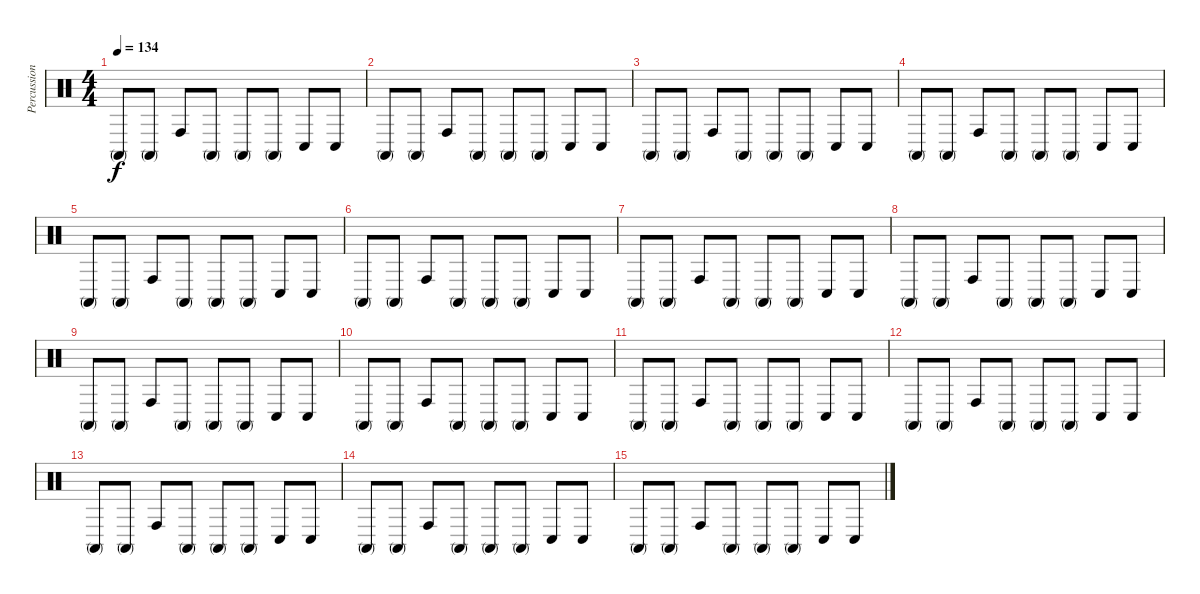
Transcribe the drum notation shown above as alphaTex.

\track ("Percussion" "Percussion") {instrument percussion}
\staff {score}
\articulation defaults
\ts (4 4)
\tempo 134
\clef neutral
\ks c "Conga high (mute)".8{dy f} "Conga high (mute)".8 "Conga high (hit)".8 "Conga high (mute)".8 "Conga high (mute)".8 "Conga high (mute)".8 "Conga low (hit)".8 "Conga low (hit)".8
|
"Conga high (mute)".8 "Conga high (mute)".8 "Conga high (hit)".8 "Conga high (mute)".8 "Conga high (mute)".8 "Conga high (mute)".8 "Conga low (hit)".8 "Conga low (hit)".8 |
"Conga high (mute)".8 "Conga high (mute)".8 "Conga high (hit)".8 "Conga high (mute)".8 "Conga high (mute)".8 "Conga high (mute)".8 "Conga low (hit)".8 "Conga low (hit)".8 |
"Conga high (mute)".8 "Conga high (mute)".8 "Conga high (hit)".8 "Conga high (mute)".8 "Conga high (mute)".8 "Conga high (mute)".8 "Conga low (hit)".8 "Conga low (hit)".8 |
"Conga high (mute)".8 "Conga high (mute)".8 "Conga high (hit)".8 "Conga high (mute)".8 "Conga high (mute)".8 "Conga high (mute)".8 "Conga low (hit)".8 "Conga low (hit)".8 |
"Conga high (mute)".8 "Conga high (mute)".8 "Conga high (hit)".8 "Conga high (mute)".8 "Conga high (mute)".8 "Conga high (mute)".8 "Conga low (hit)".8 "Conga low (hit)".8 |
"Conga high (mute)".8 "Conga high (mute)".8 "Conga high (hit)".8 "Conga high (mute)".8 "Conga high (mute)".8 "Conga high (mute)".8 "Conga low (hit)".8 "Conga low (hit)".8 |
"Conga high (mute)".8 "Conga high (mute)".8 "Conga high (hit)".8 "Conga high (mute)".8 "Conga high (mute)".8 "Conga high (mute)".8 "Conga low (hit)".8 "Conga low (hit)".8 |
"Conga high (mute)".8 "Conga high (mute)".8 "Conga high (hit)".8 "Conga high (mute)".8 "Conga high (mute)".8 "Conga high (mute)".8 "Conga low (hit)".8 "Conga low (hit)".8 |
"Conga high (mute)".8 "Conga high (mute)".8 "Conga high (hit)".8 "Conga high (mute)".8 "Conga high (mute)".8 "Conga high (mute)".8 "Conga low (hit)".8 "Conga low (hit)".8 |
"Conga high (mute)".8 "Conga high (mute)".8 "Conga high (hit)".8 "Conga high (mute)".8 "Conga high (mute)".8 "Conga high (mute)".8 "Conga low (hit)".8 "Conga low (hit)".8 |
"Conga high (mute)".8 "Conga high (mute)".8 "Conga high (hit)".8 "Conga high (mute)".8 "Conga high (mute)".8 "Conga high (mute)".8 "Conga low (hit)".8 "Conga low (hit)".8 |
"Conga high (mute)".8 "Conga high (mute)".8 "Conga high (hit)".8 "Conga high (mute)".8 "Conga high (mute)".8 "Conga high (mute)".8 "Conga low (hit)".8 "Conga low (hit)".8 |
"Conga high (mute)".8 "Conga high (mute)".8 "Conga high (hit)".8 "Conga high (mute)".8 "Conga high (mute)".8 "Conga high (mute)".8 "Conga low (hit)".8 "Conga low (hit)".8 |
"Conga high (mute)".8 "Conga high (mute)".8 "Conga high (hit)".8 "Conga high (mute)".8 "Conga high (mute)".8 "Conga high (mute)".8 "Conga low (hit)".8 "Conga low (hit)".8
